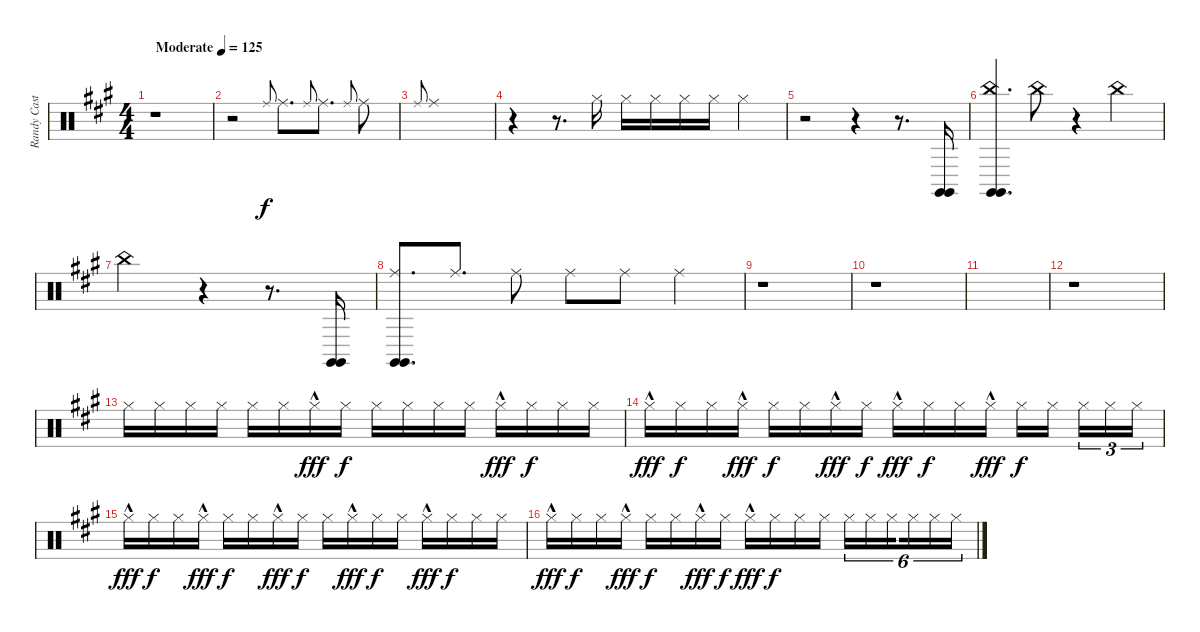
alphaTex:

\track ("Randy Castillo - Drums" "Randy Cast") {instrument percussion}
\staff {score}
\articulation defaults
\ts (4 4)
\tempo (125 "Moderate")
\clef neutral
\ks a
r.1{dy f} |
r.2 "Ride (middle)".8{gr onbeat} "Ride (middle)".8{d} "Ride (middle)".8{gr onbeat} "Ride (middle)".8{d} "Ride (middle)".8{gr onbeat} "Ride (middle)".8 |
"Ride (middle)".8{gr onbeat} "Ride (middle)".1 |
r.4 r.8{d} "Hi-Hat (closed)".16 "Hi-Hat (closed)".16 "Hi-Hat (closed)".16 "Hi-Hat (closed)".16 "Hi-Hat (closed)".16 "Hi-Hat (closed)".4 |
r.2 r.4 r.8{d} ("Claves (hit)" "Claves (hit)").16 |
("China (hit)" "Claves (hit)" "Claves (hit)").4{d} "China (hit)".8 r.4 "China (hit)".4 |
"China (hit)".2 r.4 r.8{d} ("Claves (hit)" "Claves (hit)").16 |
("Ride (middle)" "Claves (hit)" "Claves (hit)").8{d} "Ride (middle)".8{d} "Ride (middle)".8 "Ride (middle)".8 "Ride (middle)".8 "Ride (middle)".4 |
r.1 |
r.1 |
|
r.1 |
"Hi-Hat (closed)".16 "Hi-Hat (closed)".16 "Hi-Hat (closed)".16 "Hi-Hat (closed)".16 "Hi-Hat (closed)".16 "Hi-Hat (closed)".16 "Hi-Hat (closed)"{hac}.16{dy fff} "Hi-Hat (closed)".16{dy f} "Hi-Hat (closed)".16 "Hi-Hat (closed)".16 "Hi-Hat (closed)".16 "Hi-Hat (closed)".16 "Hi-Hat (closed)"{hac}.16{dy fff} "Hi-Hat (closed)".16{dy f} "Hi-Hat (closed)".16 "Hi-Hat (closed)".16 |
"Hi-Hat (closed)"{hac}.16{dy fff} "Hi-Hat (closed)".16{dy f} "Hi-Hat (closed)".16 "Hi-Hat (closed)"{hac}.16{dy fff} "Hi-Hat (closed)".16{dy f} "Hi-Hat (closed)".16 "Hi-Hat (closed)"{hac}.16{dy fff} "Hi-Hat (closed)".16{dy f} "Hi-Hat (closed)"{hac}.16{dy fff} "Hi-Hat (closed)".16{dy f} "Hi-Hat (closed)".16 "Hi-Hat (closed)"{hac}.16{dy fff} "Hi-Hat (closed)".16{dy f} "Hi-Hat (closed)".16{beam splitsecondary} "Hi-Hat (closed)".16{tu (3 2)} "Hi-Hat (closed)".16{tu (3 2)} "Hi-Hat (closed)".16{tu (3 2)} |
"Hi-Hat (closed)"{hac}.16{dy fff} "Hi-Hat (closed)".16{dy f} "Hi-Hat (closed)".16 "Hi-Hat (closed)"{hac}.16{dy fff} "Hi-Hat (closed)".16{dy f} "Hi-Hat (closed)".16 "Hi-Hat (closed)"{hac}.16{dy fff} "Hi-Hat (closed)".16{dy f} "Hi-Hat (closed)".16 "Hi-Hat (closed)"{hac}.16{dy fff} "Hi-Hat (closed)".16{dy f} "Hi-Hat (closed)".16 "Hi-Hat (closed)"{hac}.16{dy fff} "Hi-Hat (closed)".16{dy f} "Hi-Hat (closed)".16 "Hi-Hat (closed)".16 |
"Hi-Hat (closed)"{hac}.16{dy fff} "Hi-Hat (closed)".16{dy f} "Hi-Hat (closed)".16 "Hi-Hat (closed)"{hac}.16{dy fff} "Hi-Hat (closed)".16{dy f} "Hi-Hat (closed)".16 "Hi-Hat (closed)"{hac}.16{dy fff} "Hi-Hat (closed)".16{dy f} "Hi-Hat (closed)"{hac}.16{dy fff} "Hi-Hat (closed)".16{dy f} "Hi-Hat (closed)".16 "Hi-Hat (closed)".16 "Hi-Hat (closed)".16{tu (6 4)} "Hi-Hat (closed)".16{tu (6 4)} "Hi-Hat (closed)".16{tu (6 4) beam splitsecondary} "Hi-Hat (closed)".16{tu (6 4)} "Hi-Hat (closed)".16{tu (6 4)} "Hi-Hat (closed)".16{tu (6 4)}
